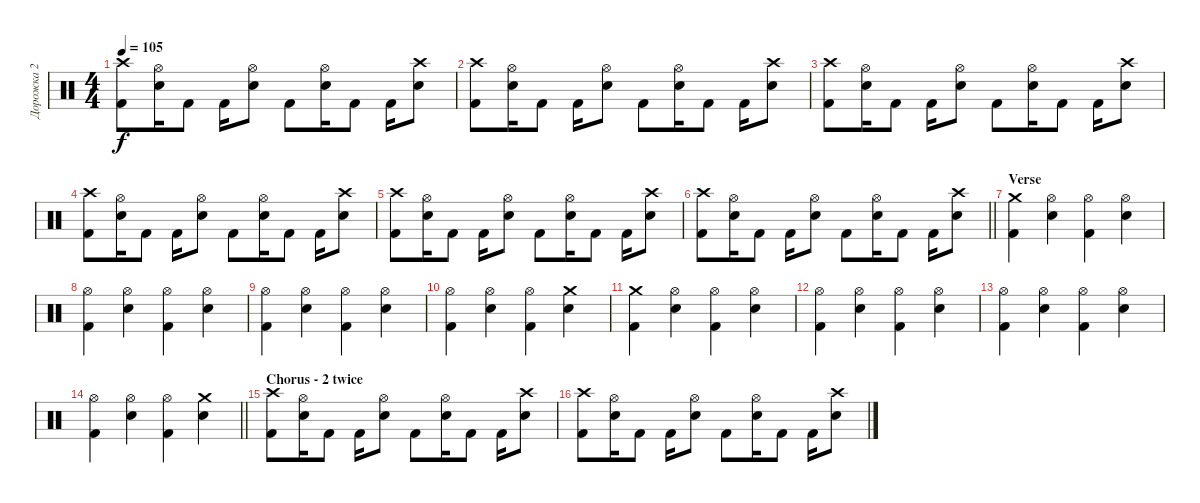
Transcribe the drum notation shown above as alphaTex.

\track ("Дорожка 2" "Дорожка 2") {instrument percussion}
\staff {score}
\articulation defaults
\ts (4 4)
\tempo 105
\clef neutral
\ks c
("Kick (hit) 2" "Crash high (hit)").8{dy f} ("Snare (hit) 2" "Hi-Hat (open)").16 "Kick (hit) 2".8 "Kick (hit) 2".16 ("Snare (hit) 2" "Hi-Hat (open)").8 "Kick (hit) 2".8 ("Snare (hit) 2" "Hi-Hat (open)").16 "Kick (hit) 2".8 "Kick (hit) 2".16 ("Snare (hit) 2" "Crash high (hit)").8 |
("Kick (hit) 2" "Crash high (hit)").8 ("Snare (hit) 2" "Hi-Hat (open)").16 "Kick (hit) 2".8 "Kick (hit) 2".16 ("Snare (hit) 2" "Hi-Hat (open)").8 "Kick (hit) 2".8 ("Snare (hit) 2" "Hi-Hat (open)").16 "Kick (hit) 2".8 "Kick (hit) 2".16 ("Snare (hit) 2" "Crash high (hit)").8 |
("Kick (hit) 2" "Crash high (hit)").8 ("Snare (hit) 2" "Hi-Hat (open)").16 "Kick (hit) 2".8 "Kick (hit) 2".16 ("Snare (hit) 2" "Hi-Hat (open)").8 "Kick (hit) 2".8 ("Snare (hit) 2" "Hi-Hat (open)").16 "Kick (hit) 2".8 "Kick (hit) 2".16 ("Snare (hit) 2" "Crash high (hit)").8 |
("Kick (hit) 2" "Crash high (hit)").8 ("Snare (hit) 2" "Hi-Hat (open)").16 "Kick (hit) 2".8 "Kick (hit) 2".16 ("Snare (hit) 2" "Hi-Hat (open)").8 "Kick (hit) 2".8 ("Snare (hit) 2" "Hi-Hat (open)").16 "Kick (hit) 2".8 "Kick (hit) 2".16 ("Snare (hit) 2" "Crash high (hit)").8 |
("Kick (hit) 2" "Crash high (hit)").8 ("Snare (hit) 2" "Hi-Hat (open)").16 "Kick (hit) 2".8 "Kick (hit) 2".16 ("Snare (hit) 2" "Hi-Hat (open)").8 "Kick (hit) 2".8 ("Snare (hit) 2" "Hi-Hat (open)").16 "Kick (hit) 2".8 "Kick (hit) 2".16 ("Snare (hit) 2" "Crash high (hit)").8 |
\barLineRight lightlight
("Kick (hit) 2" "Crash high (hit)").8 ("Snare (hit) 2" "Hi-Hat (open)").16 "Kick (hit) 2".8 "Kick (hit) 2".16 ("Snare (hit) 2" "Hi-Hat (open)").8 "Kick (hit) 2".8 ("Snare (hit) 2" "Hi-Hat (open)").16 "Kick (hit) 2".8 "Kick (hit) 2".16 ("Snare (hit) 2" "Crash high (hit)").8 |
\section ("" "Verse")
("Crash medium (hit)" "Kick (hit) 2").4 ("Snare (hit) 2" "Hi-Hat (open)").4 ("Hi-Hat (open)" "Kick (hit) 2").4 ("Snare (hit) 2" "Hi-Hat (open)").4 |
("Hi-Hat (open)" "Kick (hit) 2").4 ("Snare (hit) 2" "Hi-Hat (open)").4 ("Hi-Hat (open)" "Kick (hit) 2").4 ("Snare (hit) 2" "Hi-Hat (open)").4 |
("Hi-Hat (open)" "Kick (hit) 2").4 ("Snare (hit) 2" "Hi-Hat (open)").4 ("Hi-Hat (open)" "Kick (hit) 2").4 ("Snare (hit) 2" "Hi-Hat (open)").4 |
("Hi-Hat (open)" "Kick (hit) 2").4 ("Snare (hit) 2" "Hi-Hat (open)").4 ("Hi-Hat (open)" "Kick (hit) 2").4 ("Snare (hit) 2" "Crash medium (hit)").4 |
("Crash medium (hit)" "Kick (hit) 2").4 ("Snare (hit) 2" "Hi-Hat (open)").4 ("Hi-Hat (open)" "Kick (hit) 2").4 ("Snare (hit) 2" "Hi-Hat (open)").4 |
("Hi-Hat (open)" "Kick (hit) 2").4 ("Snare (hit) 2" "Hi-Hat (open)").4 ("Hi-Hat (open)" "Kick (hit) 2").4 ("Snare (hit) 2" "Hi-Hat (open)").4 |
("Hi-Hat (open)" "Kick (hit) 2").4 ("Snare (hit) 2" "Hi-Hat (open)").4 ("Hi-Hat (open)" "Kick (hit) 2").4 ("Snare (hit) 2" "Hi-Hat (open)").4 |
\barLineRight lightlight
("Hi-Hat (open)" "Kick (hit) 2").4 ("Snare (hit) 2" "Hi-Hat (open)").4 ("Hi-Hat (open)" "Kick (hit) 2").4 ("Snare (hit) 2" "Crash medium (hit)").4 |
\section ("" "Chorus - 2 twice")
("Kick (hit) 2" "Crash high (hit)").8 ("Snare (hit) 2" "Hi-Hat (open)").16 "Kick (hit) 2".8 "Kick (hit) 2".16 ("Snare (hit) 2" "Hi-Hat (open)").8 "Kick (hit) 2".8 ("Snare (hit) 2" "Hi-Hat (open)").16 "Kick (hit) 2".8 "Kick (hit) 2".16 ("Snare (hit) 2" "Crash high (hit)").8 |
("Kick (hit) 2" "Crash high (hit)").8 ("Snare (hit) 2" "Hi-Hat (open)").16 "Kick (hit) 2".8 "Kick (hit) 2".16 ("Snare (hit) 2" "Hi-Hat (open)").8 "Kick (hit) 2".8 ("Snare (hit) 2" "Hi-Hat (open)").16 "Kick (hit) 2".8 "Kick (hit) 2".16 ("Snare (hit) 2" "Crash high (hit)").8
